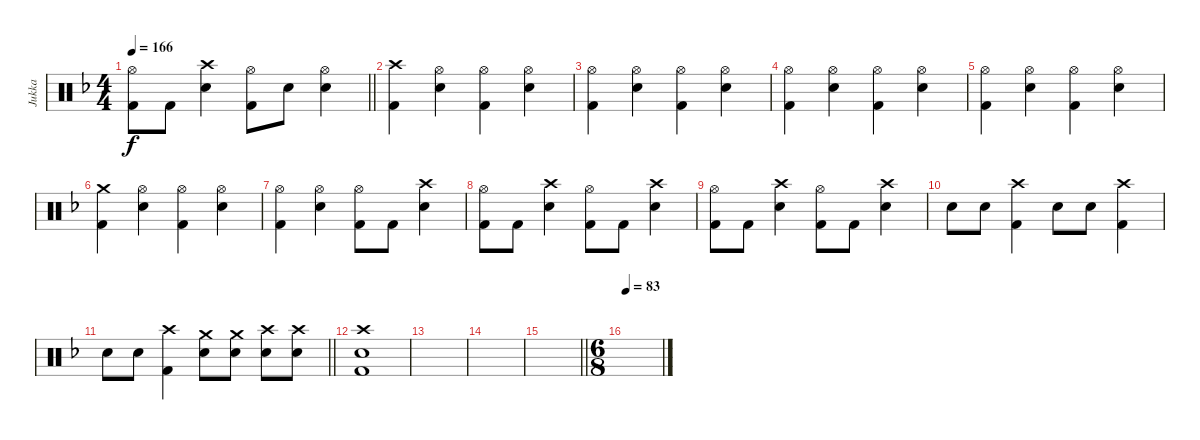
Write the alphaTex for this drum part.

\track ("Jukka" "Jukka") {instrument percussion}
\staff {score}
\articulation defaults
\ts (4 4)
\tempo 166
\clef neutral
\barLineRight lightlight
\ks f
("Hi-Hat (open)" "Kick (hit) 2").8{dy f} "Kick (hit) 2".8 ("Crash high (hit)" "Electric Snare (hit)").4 ("Hi-Hat (open)" "Kick (hit) 2").8 "Electric Snare (hit)".8 ("Hi-Hat (open)" "Electric Snare (hit)").4 |
\section ("" "")
("Crash high (hit)" "Kick (hit) 2").4 ("Hi-Hat (open)" "Electric Snare (hit)").4 ("Hi-Hat (open)" "Kick (hit) 2").4 ("Hi-Hat (open)" "Electric Snare (hit)").4 |
("Hi-Hat (open)" "Kick (hit) 2").4 ("Hi-Hat (open)" "Electric Snare (hit)").4 ("Hi-Hat (open)" "Kick (hit) 2").4 ("Hi-Hat (open)" "Electric Snare (hit)").4 |
("Hi-Hat (open)" "Kick (hit) 2").4 ("Hi-Hat (open)" "Electric Snare (hit)").4 ("Hi-Hat (open)" "Kick (hit) 2").4 ("Hi-Hat (open)" "Electric Snare (hit)").4 |
("Hi-Hat (open)" "Kick (hit) 2").4 ("Hi-Hat (open)" "Electric Snare (hit)").4 ("Hi-Hat (open)" "Kick (hit) 2").4 ("Hi-Hat (open)" "Electric Snare (hit)").4 |
("Crash medium (hit)" "Kick (hit) 2").4 ("Hi-Hat (open)" "Electric Snare (hit)").4 ("Hi-Hat (open)" "Kick (hit) 2").4 ("Hi-Hat (open)" "Electric Snare (hit)").4 |
("Hi-Hat (open)" "Kick (hit) 2").4 ("Hi-Hat (open)" "Electric Snare (hit)").4 ("Hi-Hat (open)" "Kick (hit) 2").8 "Kick (hit) 2".8 ("Crash high (hit)" "Electric Snare (hit)").4 |
("Hi-Hat (open)" "Kick (hit) 2").8 "Kick (hit) 2".8 ("Crash high (hit)" "Electric Snare (hit)").4 ("Hi-Hat (open)" "Kick (hit) 2").8 "Kick (hit) 2".8 ("Crash high (hit)" "Electric Snare (hit)").4 |
("Hi-Hat (open)" "Kick (hit) 2").8 "Kick (hit) 2".8 ("Crash high (hit)" "Electric Snare (hit)").4 ("Hi-Hat (open)" "Kick (hit) 2").8 "Kick (hit) 2".8 ("Crash high (hit)" "Electric Snare (hit)").4 |
"Electric Snare (hit)".8 "Electric Snare (hit)".8 ("Crash high (hit)" "Kick (hit) 2").4 "Electric Snare (hit)".8 "Electric Snare (hit)".8 ("Crash high (hit)" "Kick (hit) 2").4 |
\barLineRight lightlight "Electric Snare (hit)".8 "Electric Snare (hit)".8
("Crash high (hit)" "Kick (hit) 2").4 ("Crash medium (hit)" "Electric Snare (hit)").8 ("Crash medium (hit)" "Electric Snare (hit)").8 ("Crash high (hit)" "Electric Snare (hit)").8 ("Crash high (hit)" "Electric Snare (hit)").8 |
\section ("" "")
("Crash high (hit)" "Kick (hit) 2" "Electric Snare (hit)").1 |
|
|
\barLineRight lightlight
|
\ts (6 8)
\section ("" "")
\tempo 83
